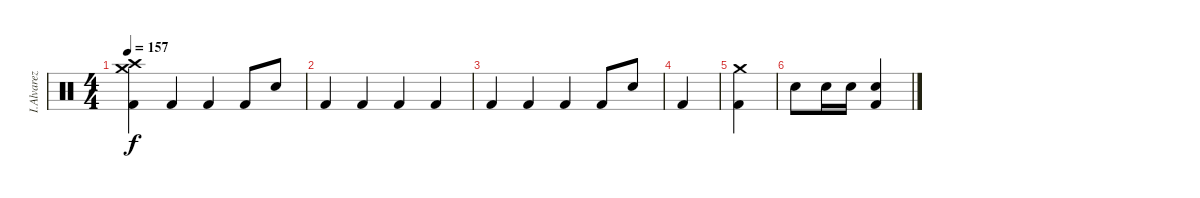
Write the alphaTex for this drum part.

\track ("I.Alvarez" "I.Alvarez") {instrument percussion}
\staff {score}
\articulation defaults
\ts (4 4)
\tempo 157
\clef neutral
\ks c
("Crash medium (hit)" "Crash high (hit)" "Kick (hit) 2").4{dy f} "Kick (hit) 2".4 "Kick (hit) 2".4 "Kick (hit) 2".8 "Electric Snare (hit)".8 |
"Kick (hit) 2".4 "Kick (hit) 2".4 "Kick (hit) 2".4 "Kick (hit) 2".4 |
"Kick (hit) 2".4 "Kick (hit) 2".4 "Kick (hit) 2".4 "Kick (hit) 2".8 "Electric Snare (hit)".8 |
"Kick (hit) 2".4 |
("Crash medium (hit)" "Kick (hit) 2").4 |
"Electric Snare (hit)".8 "Electric Snare (hit)".16 "Electric Snare (hit)".16 ("Electric Snare (hit)" "Kick (hit) 2").4
